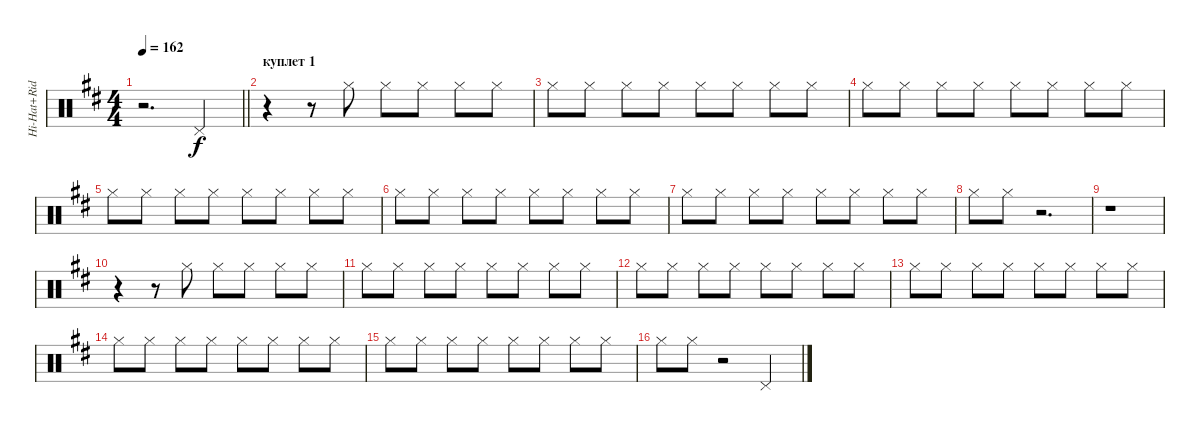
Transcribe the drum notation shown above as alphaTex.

\track ("Hi-Hat+Ride" "Hi-Hat+Rid") {instrument percussion}
\staff {score}
\articulation defaults
\ts (4 4)
\tempo 162
\clef neutral
\barLineRight lightlight
\ks bminor
r.2{d dy f} "Pedal Hi-Hat (hit)".4 |
\section ("" "куплет 1")
r.4 r.8 "Hi-Hat (closed)".8 "Hi-Hat (closed)".8 "Hi-Hat (closed)".8 "Hi-Hat (closed)".8 "Hi-Hat (closed)".8 |
"Hi-Hat (closed)".8 "Hi-Hat (closed)".8 "Hi-Hat (closed)".8 "Hi-Hat (closed)".8 "Hi-Hat (closed)".8 "Hi-Hat (closed)".8 "Hi-Hat (closed)".8 "Hi-Hat (closed)".8 |
"Hi-Hat (closed)".8 "Hi-Hat (closed)".8 "Hi-Hat (closed)".8 "Hi-Hat (closed)".8 "Hi-Hat (closed)".8 "Hi-Hat (closed)".8 "Hi-Hat (closed)".8 "Hi-Hat (closed)".8 |
"Hi-Hat (closed)".8 "Hi-Hat (closed)".8 "Hi-Hat (closed)".8 "Hi-Hat (closed)".8 "Hi-Hat (closed)".8 "Hi-Hat (closed)".8 "Hi-Hat (closed)".8 "Hi-Hat (closed)".8 |
"Hi-Hat (closed)".8 "Hi-Hat (closed)".8 "Hi-Hat (closed)".8 "Hi-Hat (closed)".8 "Hi-Hat (closed)".8 "Hi-Hat (closed)".8 "Hi-Hat (closed)".8 "Hi-Hat (closed)".8 |
"Hi-Hat (closed)".8 "Hi-Hat (closed)".8 "Hi-Hat (closed)".8 "Hi-Hat (closed)".8 "Hi-Hat (closed)".8 "Hi-Hat (closed)".8 "Hi-Hat (closed)".8 "Hi-Hat (closed)".8 |
"Hi-Hat (closed)".8 "Hi-Hat (closed)".8 r.2{d} |
r.1 |
r.4 r.8 "Hi-Hat (closed)".8 "Hi-Hat (closed)".8 "Hi-Hat (closed)".8 "Hi-Hat (closed)".8 "Hi-Hat (closed)".8 |
"Hi-Hat (closed)".8 "Hi-Hat (closed)".8 "Hi-Hat (closed)".8 "Hi-Hat (closed)".8 "Hi-Hat (closed)".8 "Hi-Hat (closed)".8 "Hi-Hat (closed)".8 "Hi-Hat (closed)".8 |
"Hi-Hat (closed)".8 "Hi-Hat (closed)".8 "Hi-Hat (closed)".8 "Hi-Hat (closed)".8 "Hi-Hat (closed)".8 "Hi-Hat (closed)".8 "Hi-Hat (closed)".8 "Hi-Hat (closed)".8 |
"Hi-Hat (closed)".8 "Hi-Hat (closed)".8 "Hi-Hat (closed)".8 "Hi-Hat (closed)".8 "Hi-Hat (closed)".8 "Hi-Hat (closed)".8 "Hi-Hat (closed)".8 "Hi-Hat (closed)".8 |
"Hi-Hat (closed)".8 "Hi-Hat (closed)".8 "Hi-Hat (closed)".8 "Hi-Hat (closed)".8 "Hi-Hat (closed)".8 "Hi-Hat (closed)".8 "Hi-Hat (closed)".8 "Hi-Hat (closed)".8 |
"Hi-Hat (closed)".8 "Hi-Hat (closed)".8 "Hi-Hat (closed)".8 "Hi-Hat (closed)".8 "Hi-Hat (closed)".8 "Hi-Hat (closed)".8 "Hi-Hat (closed)".8 "Hi-Hat (closed)".8 |
"Hi-Hat (closed)".8 "Hi-Hat (closed)".8 r.2 "Pedal Hi-Hat (hit)".4
